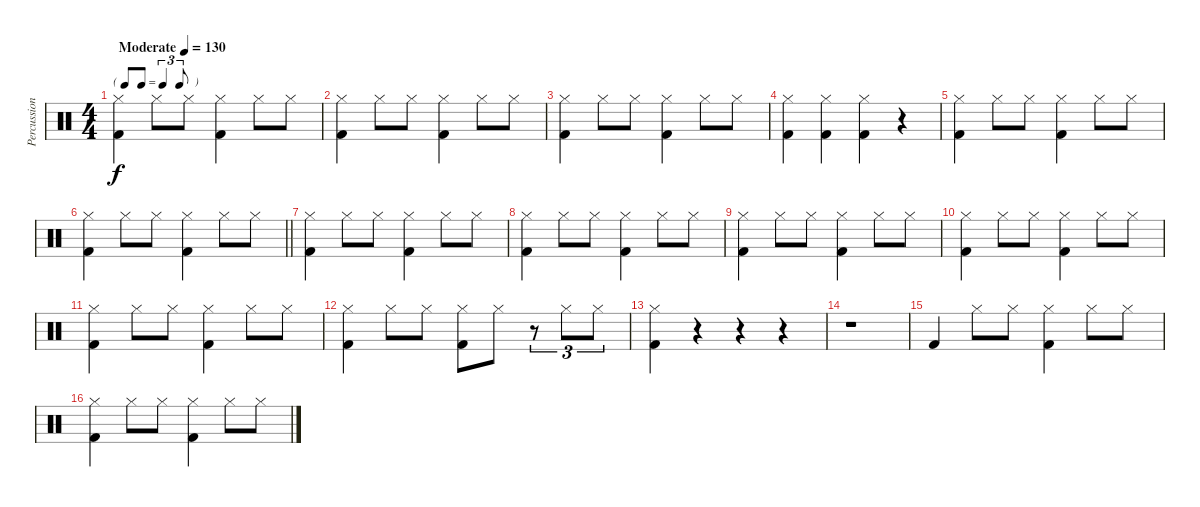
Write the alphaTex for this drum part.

\track ("Percussion" "Percussion") {instrument percussion}
\staff {score}
\articulation defaults
\ts (4 4)
\tf triplet8th
\tempo (130 "Moderate")
\clef neutral
\ks c
("Hi-Hat (closed)" "Kick (hit) 2").4{dy f} "Hi-Hat (closed)".8 "Hi-Hat (closed)".8 ("Hi-Hat (closed)" "Kick (hit) 2").4 "Hi-Hat (closed)".8 "Hi-Hat (closed)".8 |
("Hi-Hat (closed)" "Kick (hit) 2").4 "Hi-Hat (closed)".8 "Hi-Hat (closed)".8 ("Hi-Hat (closed)" "Kick (hit) 2").4 "Hi-Hat (closed)".8 "Hi-Hat (closed)".8 |
("Hi-Hat (closed)" "Kick (hit) 2").4 "Hi-Hat (closed)".8 "Hi-Hat (closed)".8 ("Hi-Hat (closed)" "Kick (hit) 2").4 "Hi-Hat (closed)".8 "Hi-Hat (closed)".8 |
("Hi-Hat (closed)" "Kick (hit) 2").4 ("Hi-Hat (closed)" "Kick (hit) 2").4 ("Hi-Hat (closed)" "Kick (hit) 2").4 r.4 |
("Hi-Hat (closed)" "Kick (hit) 2").4 "Hi-Hat (closed)".8 "Hi-Hat (closed)".8 ("Hi-Hat (closed)" "Kick (hit) 2").4 "Hi-Hat (closed)".8 "Hi-Hat (closed)".8 |
\barLineRight lightlight
("Hi-Hat (closed)" "Kick (hit) 2").4 "Hi-Hat (closed)".8 "Hi-Hat (closed)".8 ("Hi-Hat (closed)" "Kick (hit) 2").4 "Hi-Hat (closed)".8 "Hi-Hat (closed)".8 |
("Hi-Hat (closed)" "Kick (hit) 2").4 "Hi-Hat (closed)".8 "Hi-Hat (closed)".8 ("Hi-Hat (closed)" "Kick (hit) 2").4 "Hi-Hat (closed)".8 "Hi-Hat (closed)".8 |
("Hi-Hat (closed)" "Kick (hit) 2").4 "Hi-Hat (closed)".8 "Hi-Hat (closed)".8 ("Hi-Hat (closed)" "Kick (hit) 2").4 "Hi-Hat (closed)".8 "Hi-Hat (closed)".8 |
("Hi-Hat (closed)" "Kick (hit) 2").4 "Hi-Hat (closed)".8 "Hi-Hat (closed)".8 ("Hi-Hat (closed)" "Kick (hit) 2").4 "Hi-Hat (closed)".8 "Hi-Hat (closed)".8 |
("Hi-Hat (closed)" "Kick (hit) 2").4 "Hi-Hat (closed)".8 "Hi-Hat (closed)".8 ("Hi-Hat (closed)" "Kick (hit) 2").4 "Hi-Hat (closed)".8 "Hi-Hat (closed)".8 |
("Hi-Hat (closed)" "Kick (hit) 2").4 "Hi-Hat (closed)".8 "Hi-Hat (closed)".8 ("Hi-Hat (closed)" "Kick (hit) 2").4 "Hi-Hat (closed)".8 "Hi-Hat (closed)".8 |
("Hi-Hat (closed)" "Kick (hit) 2").4 "Hi-Hat (closed)".8 "Hi-Hat (closed)".8 ("Hi-Hat (closed)" "Kick (hit) 2").8 "Hi-Hat (closed)".8 r.8{tu (3 2)} "Hi-Hat (closed)".8{tu (3 2)} "Hi-Hat (closed)".8{tu (3 2)} |
("Hi-Hat (closed)" "Kick (hit) 2").4 r.4 r.4 r.4 |
r.1 |
"Kick (hit) 2".4 "Hi-Hat (closed)".8 "Hi-Hat (closed)".8 ("Hi-Hat (closed)" "Kick (hit) 2").4 "Hi-Hat (closed)".8 "Hi-Hat (closed)".8 |
("Hi-Hat (closed)" "Kick (hit) 2").4 "Hi-Hat (closed)".8 "Hi-Hat (closed)".8 ("Hi-Hat (closed)" "Kick (hit) 2").4 "Hi-Hat (closed)".8 "Hi-Hat (closed)".8
